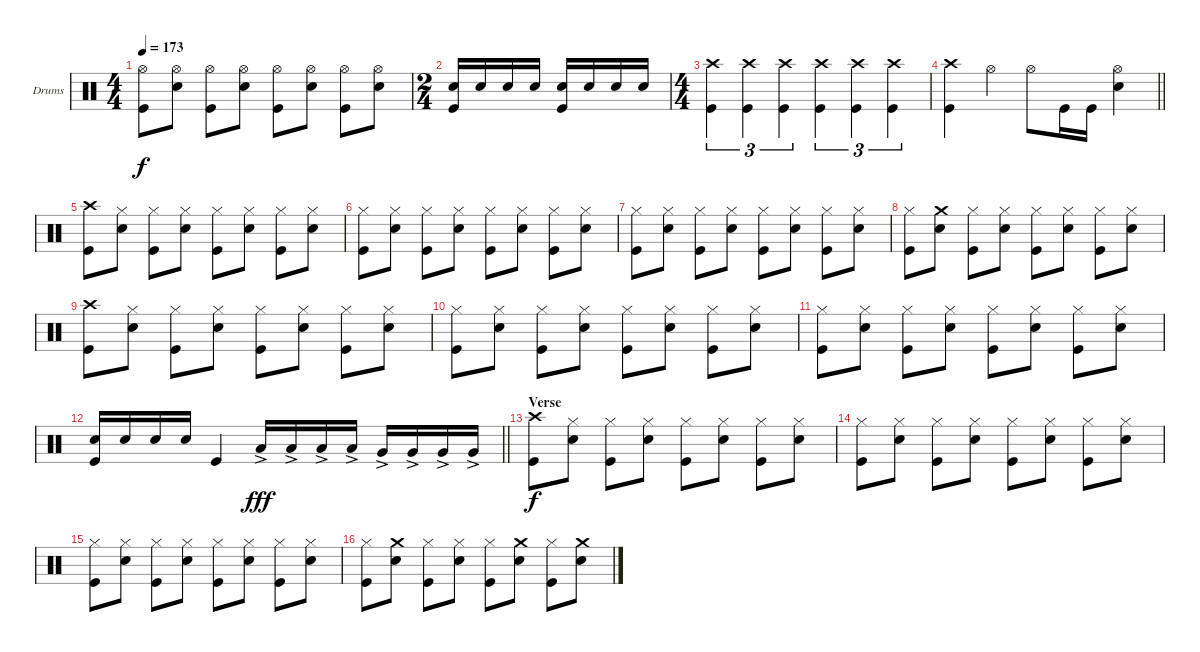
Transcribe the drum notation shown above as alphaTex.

\bracketExtendMode groupsimilarinstruments
\firstSystemTrackNameOrientation horizontal
\otherSystemsTrackNameOrientation horizontal
\track ("Drums" "Drums") {instrument percussion}
\staff {score}
\articulation defaults
\ts (4 4)
\tempo 173
\clef neutral
\ks c
("Hi-Hat (open)" "Kick (hit)").8{dy f} ("Hi-Hat (open)" "Snare (hit) 2").8 ("Hi-Hat (open)" "Kick (hit)").8 ("Hi-Hat (open)" "Snare (hit) 2").8 ("Hi-Hat (open)" "Kick (hit)").8 ("Hi-Hat (open)" "Snare (hit) 2").8 ("Hi-Hat (open)" "Kick (hit)").8 ("Hi-Hat (open)" "Snare (hit) 2").8 |
\ts (2 4)
("Snare (hit) 2" "Kick (hit)").16 "Snare (hit) 2".16 "Snare (hit) 2".16 "Snare (hit) 2".16 ("Snare (hit) 2" "Kick (hit)").16 "Snare (hit) 2".16 "Snare (hit) 2".16 "Snare (hit) 2".16 |
\ts (4 4)
("Crash high (hit)" "Kick (hit)").4{tu (3 2)} ("Crash high (hit)" "Kick (hit)").4{tu (3 2)} ("Crash high (hit)" "Kick (hit)").4{tu (3 2)} ("Crash high (hit)" "Kick (hit)").4{tu (3 2)} ("Crash high (hit)" "Kick (hit)").4{tu (3 2)} ("Crash high (hit)" "Kick (hit)").4{tu (3 2)} |
\barLineRight lightlight
("Crash high (hit)" "Kick (hit)").4 "Hi-Hat (open)".4 "Hi-Hat (open)".8 "Kick (hit)".16 "Kick (hit)".16 ("Snare (hit) 2" "Hi-Hat (open)").4 |
("Crash high (hit)" "Kick (hit)").8 ("Hi-Hat (closed)" "Snare (hit) 2").8 ("Hi-Hat (closed)" "Kick (hit)").8 ("Hi-Hat (closed)" "Snare (hit) 2").8 ("Hi-Hat (closed)" "Kick (hit)").8 ("Hi-Hat (closed)" "Snare (hit) 2").8 ("Hi-Hat (closed)" "Kick (hit)").8 ("Hi-Hat (closed)" "Snare (hit) 2").8 |
("Hi-Hat (closed)" "Kick (hit)").8 ("Hi-Hat (closed)" "Snare (hit) 2").8 ("Hi-Hat (closed)" "Kick (hit)").8 ("Hi-Hat (closed)" "Snare (hit) 2").8 ("Hi-Hat (closed)" "Kick (hit)").8 ("Hi-Hat (closed)" "Snare (hit) 2").8 ("Hi-Hat (closed)" "Kick (hit)").8 ("Hi-Hat (closed)" "Snare (hit) 2").8 |
("Hi-Hat (closed)" "Kick (hit)").8 ("Hi-Hat (closed)" "Snare (hit) 2").8 ("Hi-Hat (closed)" "Kick (hit)").8 ("Hi-Hat (closed)" "Snare (hit) 2").8 ("Hi-Hat (closed)" "Kick (hit)").8 ("Hi-Hat (closed)" "Snare (hit) 2").8 ("Hi-Hat (closed)" "Kick (hit)").8 ("Hi-Hat (closed)" "Snare (hit) 2").8 |
("Hi-Hat (closed)" "Kick (hit)").8 ("Snare (hit) 2" "Crash medium (hit)").8 ("Hi-Hat (closed)" "Kick (hit)").8 ("Hi-Hat (closed)" "Snare (hit) 2").8 ("Hi-Hat (closed)" "Kick (hit)").8 ("Hi-Hat (closed)" "Snare (hit) 2").8 ("Hi-Hat (closed)" "Kick (hit)").8 ("Hi-Hat (closed)" "Snare (hit) 2").8 |
("Crash high (hit)" "Kick (hit)").8 ("Hi-Hat (closed)" "Snare (hit) 2").8 ("Hi-Hat (closed)" "Kick (hit)").8 ("Hi-Hat (closed)" "Snare (hit) 2").8 ("Hi-Hat (closed)" "Kick (hit)").8 ("Hi-Hat (closed)" "Snare (hit) 2").8 ("Hi-Hat (closed)" "Kick (hit)").8 ("Hi-Hat (closed)" "Snare (hit) 2").8 |
("Hi-Hat (closed)" "Kick (hit)").8 ("Hi-Hat (closed)" "Snare (hit) 2").8 ("Hi-Hat (closed)" "Kick (hit)").8 ("Hi-Hat (closed)" "Snare (hit) 2").8 ("Hi-Hat (closed)" "Kick (hit)").8 ("Hi-Hat (closed)" "Snare (hit) 2").8 ("Hi-Hat (closed)" "Kick (hit)").8 ("Hi-Hat (closed)" "Snare (hit) 2").8 |
("Hi-Hat (closed)" "Kick (hit)").8 ("Hi-Hat (closed)" "Snare (hit) 2").8 ("Hi-Hat (closed)" "Kick (hit)").8 ("Hi-Hat (closed)" "Snare (hit) 2").8 ("Hi-Hat (closed)" "Kick (hit)").8 ("Hi-Hat (closed)" "Snare (hit) 2").8 ("Hi-Hat (closed)" "Kick (hit)").8 ("Hi-Hat (closed)" "Snare (hit) 2").8 |
\barLineRight lightlight
("Snare (hit) 2" "Kick (hit)").16 "Snare (hit) 2".16 "Snare (hit) 2".16 "Snare (hit) 2".16 "Kick (hit)".4 "Low Tom (hit)"{ac}.16{dy fff} "Low Tom (hit)"{ac}.16 "Low Tom (hit)"{ac}.16 "Low Tom (hit)"{ac}.16 "Very Low Tom (hit)"{ac}.16 "Very Low Tom (hit)"{ac}.16 "Very Low Tom (hit)"{ac}.16 "Very Low Tom (hit)"{ac}.16 |
\section ("" "Verse")
("Crash high (hit)" "Kick (hit)").8{dy f} ("Hi-Hat (closed)" "Snare (hit) 2").8 ("Hi-Hat (closed)" "Kick (hit)").8 ("Hi-Hat (closed)" "Snare (hit) 2").8 ("Hi-Hat (closed)" "Kick (hit)").8 ("Hi-Hat (closed)" "Snare (hit) 2").8 ("Hi-Hat (closed)" "Kick (hit)").8 ("Hi-Hat (closed)" "Snare (hit) 2").8 |
("Hi-Hat (closed)" "Kick (hit)").8 ("Hi-Hat (closed)" "Snare (hit) 2").8 ("Hi-Hat (closed)" "Kick (hit)").8 ("Hi-Hat (closed)" "Snare (hit) 2").8 ("Hi-Hat (closed)" "Kick (hit)").8 ("Hi-Hat (closed)" "Snare (hit) 2").8 ("Hi-Hat (closed)" "Kick (hit)").8 ("Hi-Hat (closed)" "Snare (hit) 2").8 |
("Hi-Hat (closed)" "Kick (hit)").8 ("Hi-Hat (closed)" "Snare (hit) 2").8 ("Hi-Hat (closed)" "Kick (hit)").8 ("Hi-Hat (closed)" "Snare (hit) 2").8 ("Hi-Hat (closed)" "Kick (hit)").8 ("Hi-Hat (closed)" "Snare (hit) 2").8 ("Hi-Hat (closed)" "Kick (hit)").8 ("Hi-Hat (closed)" "Snare (hit) 2").8 |
("Hi-Hat (closed)" "Kick (hit)").8 ("Snare (hit) 2" "Crash medium (hit)").8 ("Hi-Hat (closed)" "Kick (hit)").8 ("Hi-Hat (closed)" "Snare (hit) 2").8 ("Hi-Hat (closed)" "Kick (hit)").8 ("Snare (hit) 2" "Crash medium (hit)").8 ("Hi-Hat (closed)" "Kick (hit)").8 ("Snare (hit) 2" "Crash medium (hit)").8
